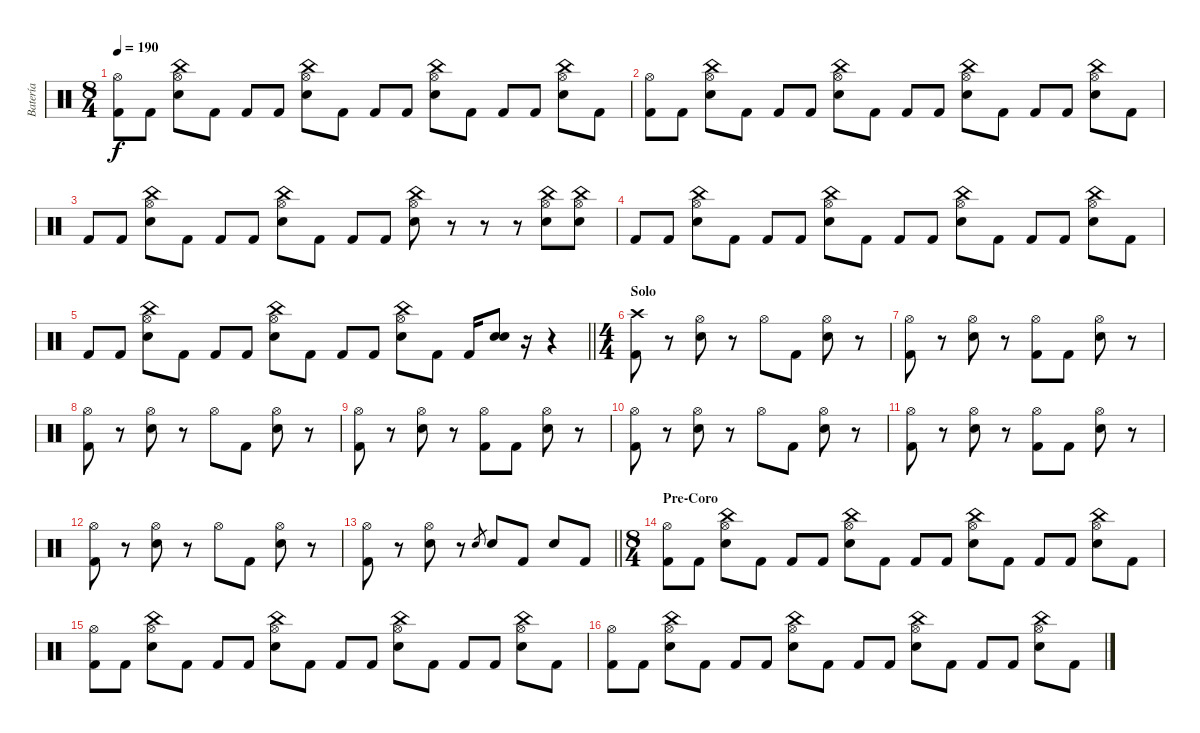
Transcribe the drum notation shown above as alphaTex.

\track ("Batería" "Batería") {instrument percussion}
\staff {score}
\articulation defaults
\ts (8 4)
\tempo 190
\clef neutral
\ks c
("Kick (hit) 2" "Hi-Hat (open)").8{dy f} "Kick (hit) 2".8 ("Snare (hit) 2" "Hi-Hat (open)" "China (hit)").8 "Kick (hit) 2".8 "Kick (hit) 2".8 "Kick (hit) 2".8 ("Snare (hit) 2" "Hi-Hat (open)" "China (hit)").8 "Kick (hit) 2".8 "Kick (hit) 2".8 "Kick (hit) 2".8 ("Snare (hit) 2" "Hi-Hat (open)" "China (hit)").8 "Kick (hit) 2".8 "Kick (hit) 2".8 "Kick (hit) 2".8 ("Snare (hit) 2" "Hi-Hat (open)" "China (hit)").8 "Kick (hit) 2".8 |
("Kick (hit) 2" "Hi-Hat (open)").8 "Kick (hit) 2".8 ("Snare (hit) 2" "Hi-Hat (open)" "China (hit)").8 "Kick (hit) 2".8 "Kick (hit) 2".8 "Kick (hit) 2".8 ("Snare (hit) 2" "Hi-Hat (open)" "China (hit)").8 "Kick (hit) 2".8 "Kick (hit) 2".8 "Kick (hit) 2".8 ("Snare (hit) 2" "Hi-Hat (open)" "China (hit)").8 "Kick (hit) 2".8 "Kick (hit) 2".8 "Kick (hit) 2".8 ("Snare (hit) 2" "Hi-Hat (open)" "China (hit)").8 "Kick (hit) 2".8 |
"Kick (hit) 2".8 "Kick (hit) 2".8 ("Snare (hit) 2" "Hi-Hat (open)" "China (hit)").8 "Kick (hit) 2".8 "Kick (hit) 2".8 "Kick (hit) 2".8 ("Snare (hit) 2" "Hi-Hat (open)" "China (hit)").8 "Kick (hit) 2".8 "Kick (hit) 2".8 "Kick (hit) 2".8 ("Snare (hit) 2" "Hi-Hat (open)" "China (hit)").8 r.8 r.8 r.8 ("Snare (hit) 2" "Hi-Hat (open)" "China (hit)").8 ("Snare (hit) 2" "Hi-Hat (open)" "China (hit)").8 |
"Kick (hit) 2".8 "Kick (hit) 2".8 ("Snare (hit) 2" "Hi-Hat (open)" "China (hit)").8 "Kick (hit) 2".8 "Kick (hit) 2".8 "Kick (hit) 2".8 ("Snare (hit) 2" "Hi-Hat (open)" "China (hit)").8 "Kick (hit) 2".8 "Kick (hit) 2".8 "Kick (hit) 2".8 ("Snare (hit) 2" "Hi-Hat (open)" "China (hit)").8 "Kick (hit) 2".8 "Kick (hit) 2".8 "Kick (hit) 2".8 ("Snare (hit) 2" "Hi-Hat (open)" "China (hit)").8 "Kick (hit) 2".8 |
\barLineRight lightlight "Kick (hit) 2".8 "Kick (hit) 2".8
("Snare (hit) 2" "Hi-Hat (open)" "China (hit)").8 "Kick (hit) 2".8 "Kick (hit) 2".8 "Kick (hit) 2".8 ("Snare (hit) 2" "Hi-Hat (open)" "China (hit)").8 "Kick (hit) 2".8 "Kick (hit) 2".8 "Kick (hit) 2".8 ("Snare (hit) 2" "Hi-Hat (open)" "China (hit)").8 "Kick (hit) 2".8 "Kick (hit) 2".16 ("Snare (hit) 2" "Electric Snare (hit)").8 r.16 r.4 |
\ts (4 4)
\section ("" "Solo")
("Crash high (hit)" "Kick (hit) 2").8 r.8 ("Hi-Hat (open)" "Electric Snare (hit)").8 r.8 "Hi-Hat (open)".8 "Kick (hit) 2".8 ("Hi-Hat (open)" "Electric Snare (hit)").8 r.8 |
("Hi-Hat (open)" "Kick (hit) 2").8 r.8 ("Hi-Hat (open)" "Electric Snare (hit)").8 r.8 ("Hi-Hat (open)" "Kick (hit) 2").8 "Kick (hit) 2".8 ("Hi-Hat (open)" "Electric Snare (hit)").8 r.8 |
("Hi-Hat (open)" "Kick (hit) 2").8 r.8 ("Hi-Hat (open)" "Electric Snare (hit)").8 r.8 "Hi-Hat (open)".8 "Kick (hit) 2".8 ("Hi-Hat (open)" "Electric Snare (hit)").8 r.8 |
("Hi-Hat (open)" "Kick (hit) 2").8 r.8 ("Hi-Hat (open)" "Electric Snare (hit)").8 r.8 ("Hi-Hat (open)" "Kick (hit) 2").8 "Kick (hit) 2".8 ("Hi-Hat (open)" "Electric Snare (hit)").8 r.8 |
("Hi-Hat (open)" "Kick (hit) 2").8 r.8 ("Hi-Hat (open)" "Electric Snare (hit)").8 r.8 "Hi-Hat (open)".8 "Kick (hit) 2".8 ("Hi-Hat (open)" "Electric Snare (hit)").8 r.8 |
("Hi-Hat (open)" "Kick (hit) 2").8 r.8 ("Hi-Hat (open)" "Electric Snare (hit)").8 r.8 ("Hi-Hat (open)" "Kick (hit) 2").8 "Kick (hit) 2".8 ("Hi-Hat (open)" "Electric Snare (hit)").8 r.8 |
("Hi-Hat (open)" "Kick (hit) 2").8 r.8 ("Hi-Hat (open)" "Electric Snare (hit)").8 r.8 "Hi-Hat (open)".8 "Kick (hit) 2".8 ("Hi-Hat (open)" "Electric Snare (hit)").8 r.8 |
\barLineRight lightlight
("Hi-Hat (open)" "Kick (hit) 2").8 r.8 ("Hi-Hat (open)" "Electric Snare (hit)").8 r.8 "Electric Snare (hit)".8{gr} "Electric Snare (hit)".8 "Kick (hit) 2".8 "Electric Snare (hit)".8 "Kick (hit) 2".8 |
\ts (8 4)
\section ("" "Pre-Coro")
("Kick (hit) 2" "Hi-Hat (open)").8 "Kick (hit) 2".8 ("Snare (hit) 2" "Hi-Hat (open)" "China (hit)").8 "Kick (hit) 2".8 "Kick (hit) 2".8 "Kick (hit) 2".8 ("Snare (hit) 2" "Hi-Hat (open)" "China (hit)").8 "Kick (hit) 2".8 "Kick (hit) 2".8 "Kick (hit) 2".8 ("Snare (hit) 2" "Hi-Hat (open)" "China (hit)").8 "Kick (hit) 2".8 "Kick (hit) 2".8 "Kick (hit) 2".8 ("Snare (hit) 2" "Hi-Hat (open)" "China (hit)").8 "Kick (hit) 2".8 |
("Kick (hit) 2" "Hi-Hat (open)").8 "Kick (hit) 2".8 ("Snare (hit) 2" "Hi-Hat (open)" "China (hit)").8 "Kick (hit) 2".8 "Kick (hit) 2".8 "Kick (hit) 2".8 ("Snare (hit) 2" "Hi-Hat (open)" "China (hit)").8 "Kick (hit) 2".8 "Kick (hit) 2".8 "Kick (hit) 2".8 ("Snare (hit) 2" "Hi-Hat (open)" "China (hit)").8 "Kick (hit) 2".8 "Kick (hit) 2".8 "Kick (hit) 2".8 ("Snare (hit) 2" "Hi-Hat (open)" "China (hit)").8 "Kick (hit) 2".8 |
("Kick (hit) 2" "Hi-Hat (open)").8 "Kick (hit) 2".8 ("Snare (hit) 2" "Hi-Hat (open)" "China (hit)").8 "Kick (hit) 2".8 "Kick (hit) 2".8 "Kick (hit) 2".8 ("Snare (hit) 2" "Hi-Hat (open)" "China (hit)").8 "Kick (hit) 2".8 "Kick (hit) 2".8 "Kick (hit) 2".8 ("Snare (hit) 2" "Hi-Hat (open)" "China (hit)").8 "Kick (hit) 2".8 "Kick (hit) 2".8 "Kick (hit) 2".8 ("Snare (hit) 2" "Hi-Hat (open)" "China (hit)").8 "Kick (hit) 2".8
